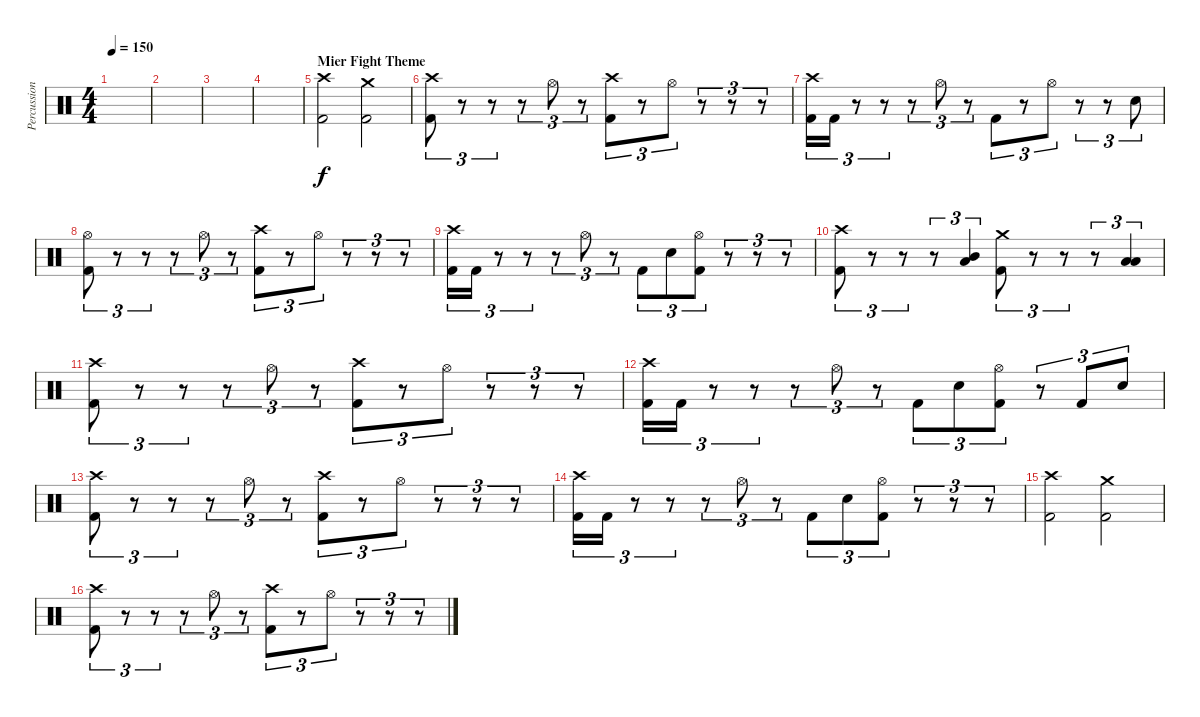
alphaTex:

\track ("Percussion" "Percussion") {instrument percussion}
\staff {score}
\articulation defaults
\ts (4 4)
\tempo 150
\clef neutral
\ks c
|
|
|
|
\section ("" "Mier Fight Theme")
("Crash high (hit)" "Kick (hit) 2").2 ("Crash medium (hit)" "Kick (hit) 2").2 |
("Crash high (hit)" "Kick (hit) 2").8{tu (3 2)} r.8{tu (3 2)} r.8{tu (3 2)} r.8{tu (3 2)} "Hi-Hat (open)".8{tu (3 2)} r.8{tu (3 2)} ("Crash high (hit)" "Kick (hit) 2").8{tu (3 2)} r.8{tu (3 2)} "Hi-Hat (open)".8{tu (3 2)} r.8{tu (3 2)} r.8{tu (3 2)} r.8{tu (3 2)} |
("Crash high (hit)" "Kick (hit) 2").16{tu (3 2)} "Kick (hit) 2".16{tu (3 2)} r.8{tu (3 2)} r.8{tu (3 2)} r.8{tu (3 2)} "Hi-Hat (open)".8{tu (3 2)} r.8{tu (3 2)} "Kick (hit) 2".8{tu (3 2)} r.8{tu (3 2)} "Hi-Hat (open)".8{tu (3 2)} r.8{tu (3 2)} r.8{tu (3 2)} "Electric Snare (hit)".8{tu (3 2)} |
("Hi-Hat (open)" "Kick (hit) 2").8{tu (3 2)} r.8{tu (3 2)} r.8{tu (3 2)} r.8{tu (3 2)} "Hi-Hat (open)".8{tu (3 2)} r.8{tu (3 2)} ("Crash high (hit)" "Kick (hit) 2").8{tu (3 2)} r.8{tu (3 2)} "Hi-Hat (open)".8{tu (3 2)} r.8{tu (3 2)} r.8{tu (3 2)} r.8{tu (3 2)} |
("Crash high (hit)" "Kick (hit) 2").16{tu (3 2)} "Kick (hit) 2".16{tu (3 2)} r.8{tu (3 2)} r.8{tu (3 2)} r.8{tu (3 2)} "Hi-Hat (open)".8{tu (3 2)} r.8{tu (3 2)} "Kick (hit) 2".8{tu (3 2)} "Electric Snare (hit)".8{tu (3 2)} ("Hi-Hat (open)" "Kick (hit) 2").8{tu (3 2)} r.8{tu (3 2)} r.8{tu (3 2)} r.8{tu (3 2)} |
("Crash high (hit)" "Kick (hit) 2").8{tu (3 2)} r.8{tu (3 2)} r.8{tu (3 2)} r.8{tu (3 2)} ("Mid Tom (hit)" "Low Tom (hit)").4{tu (3 2)} ("Crash medium (hit)" "Kick (hit) 2").8{tu (3 2)} r.8{tu (3 2)} r.8{tu (3 2)} r.8{tu (3 2)} ("Low Tom (hit)" "Low Floor Tom (hit)").4{tu (3 2)} |
("Crash high (hit)" "Kick (hit) 2").8{tu (3 2)} r.8{tu (3 2)} r.8{tu (3 2)} r.8{tu (3 2)} "Hi-Hat (open)".8{tu (3 2)} r.8{tu (3 2)} ("Crash high (hit)" "Kick (hit) 2").8{tu (3 2)} r.8{tu (3 2)} "Hi-Hat (open)".8{tu (3 2)} r.8{tu (3 2)} r.8{tu (3 2)} r.8{tu (3 2)} |
("Crash high (hit)" "Kick (hit) 2").16{tu (3 2)} "Kick (hit) 2".16{tu (3 2)} r.8{tu (3 2)} r.8{tu (3 2)} r.8{tu (3 2)} "Hi-Hat (open)".8{tu (3 2)} r.8{tu (3 2)} "Kick (hit) 2".8{tu (3 2)} "Electric Snare (hit)".8{tu (3 2)} ("Hi-Hat (open)" "Kick (hit) 2").8{tu (3 2)} r.8{tu (3 2)} "Kick (hit) 2".8{tu (3 2)} "Electric Snare (hit)".8{tu (3 2)} |
("Crash high (hit)" "Kick (hit) 2").8{tu (3 2)} r.8{tu (3 2)} r.8{tu (3 2)} r.8{tu (3 2)} "Hi-Hat (open)".8{tu (3 2)} r.8{tu (3 2)} ("Crash high (hit)" "Kick (hit) 2").8{tu (3 2)} r.8{tu (3 2)} "Hi-Hat (open)".8{tu (3 2)} r.8{tu (3 2)} r.8{tu (3 2)} r.8{tu (3 2)} |
("Crash high (hit)" "Kick (hit) 2").16{tu (3 2)} "Kick (hit) 2".16{tu (3 2)} r.8{tu (3 2)} r.8{tu (3 2)} r.8{tu (3 2)} "Hi-Hat (open)".8{tu (3 2)} r.8{tu (3 2)} "Kick (hit) 2".8{tu (3 2)} "Electric Snare (hit)".8{tu (3 2)} ("Hi-Hat (open)" "Kick (hit) 2").8{tu (3 2)} r.8{tu (3 2)} r.8{tu (3 2)} r.8{tu (3 2)} |
("Crash high (hit)" "Kick (hit) 2").2 ("Crash medium (hit)" "Kick (hit) 2").2 |
("Crash high (hit)" "Kick (hit) 2").8{tu (3 2)} r.8{tu (3 2)} r.8{tu (3 2)} r.8{tu (3 2)} "Hi-Hat (open)".8{tu (3 2)} r.8{tu (3 2)} ("Crash high (hit)" "Kick (hit) 2").8{tu (3 2)} r.8{tu (3 2)} "Hi-Hat (open)".8{tu (3 2)} r.8{tu (3 2)} r.8{tu (3 2)} r.8{tu (3 2)}
